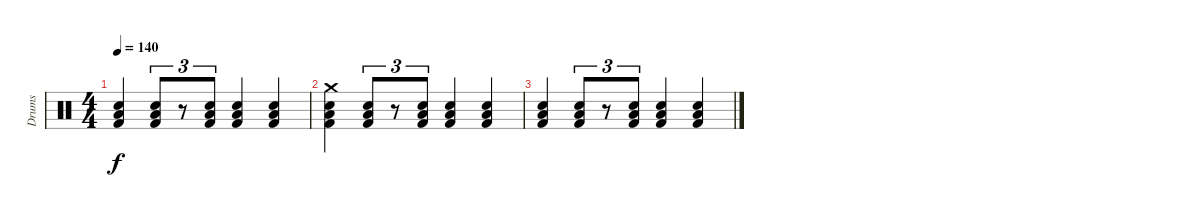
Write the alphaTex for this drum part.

\track ("Drums" "Drums") {instrument percussion}
\staff {score}
\articulation defaults
\ts (4 4)
\tempo 140
\clef neutral
\ks c
("Kick (hit) 2" "Snare (hit) 2" "Low Floor Tom (hit)").4{dy f volume 0} ("Kick (hit) 2" "Snare (hit) 2" "Low Floor Tom (hit)").8{tu (3 2)} r.8{tu (3 2)} ("Kick (hit) 2" "Snare (hit) 2" "Low Floor Tom (hit)").8{tu (3 2)} ("Kick (hit) 2" "Snare (hit) 2" "Low Floor Tom (hit)").4 ("Kick (hit) 2" "Snare (hit) 2" "Low Floor Tom (hit)").4 |
("Kick (hit) 2" "Snare (hit) 2" "Low Floor Tom (hit)" "Crash medium (hit)").4 ("Kick (hit) 2" "Snare (hit) 2" "Low Floor Tom (hit)").8{tu (3 2)} r.8{tu (3 2)} ("Kick (hit) 2" "Snare (hit) 2" "Low Floor Tom (hit)").8{tu (3 2)} ("Kick (hit) 2" "Snare (hit) 2" "Low Floor Tom (hit)").4 ("Kick (hit) 2" "Snare (hit) 2" "Low Floor Tom (hit)").4 |
("Kick (hit) 2" "Snare (hit) 2" "Low Floor Tom (hit)").4 ("Kick (hit) 2" "Snare (hit) 2" "Low Floor Tom (hit)").8{tu (3 2)} r.8{tu (3 2)} ("Kick (hit) 2" "Snare (hit) 2" "Low Floor Tom (hit)").8{tu (3 2)} ("Kick (hit) 2" "Snare (hit) 2" "Low Floor Tom (hit)").4 ("Kick (hit) 2" "Snare (hit) 2" "Low Floor Tom (hit)").4
